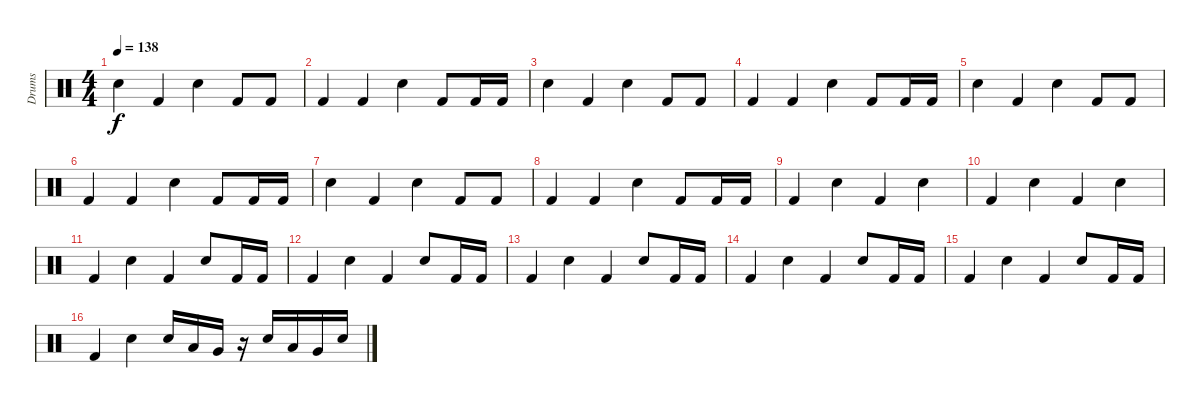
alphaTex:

\track ("Drums" "Drums") {instrument percussion}
\staff {score}
\articulation defaults
\ts (4 4)
\tempo 138
\clef neutral
\ks c "Snare (hit) 2".4{dy f} "Kick (hit) 2".4 "Electric Snare (hit)".4 "Kick (hit) 2".8 "Kick (hit) 2".8
|
"Kick (hit) 2".4 "Kick (hit) 2".4 "Electric Snare (hit)".4 "Kick (hit) 2".8 "Kick (hit) 2".16 "Kick (hit) 2".16 |
"Snare (hit) 2".4 "Kick (hit) 2".4 "Electric Snare (hit)".4 "Kick (hit) 2".8 "Kick (hit) 2".8 |
"Kick (hit) 2".4 "Kick (hit) 2".4 "Electric Snare (hit)".4 "Kick (hit) 2".8 "Kick (hit) 2".16 "Kick (hit) 2".16 |
"Snare (hit) 2".4 "Kick (hit) 2".4 "Electric Snare (hit)".4 "Kick (hit) 2".8 "Kick (hit) 2".8 |
"Kick (hit) 2".4 "Kick (hit) 2".4 "Electric Snare (hit)".4 "Kick (hit) 2".8 "Kick (hit) 2".16 "Kick (hit) 2".16 |
"Snare (hit) 2".4 "Kick (hit) 2".4 "Electric Snare (hit)".4 "Kick (hit) 2".8 "Kick (hit) 2".8 |
"Kick (hit) 2".4 "Kick (hit) 2".4 "Electric Snare (hit)".4 "Kick (hit) 2".8 "Kick (hit) 2".16 "Kick (hit) 2".16 |
"Kick (hit) 2".4 "Electric Snare (hit)".4 "Kick (hit) 2".4 "Electric Snare (hit)".4 |
"Kick (hit) 2".4 "Electric Snare (hit)".4 "Kick (hit) 2".4 "Electric Snare (hit)".4 |
"Kick (hit) 2".4 "Electric Snare (hit)".4 "Kick (hit) 2".4 "Electric Snare (hit)".8 "Kick (hit) 2".16 "Kick (hit) 2".16 |
"Kick (hit) 2".4 "Electric Snare (hit)".4 "Kick (hit) 2".4 "Electric Snare (hit)".8 "Kick (hit) 2".16 "Kick (hit) 2".16 |
"Kick (hit) 2".4 "Electric Snare (hit)".4 "Kick (hit) 2".4 "Electric Snare (hit)".8 "Kick (hit) 2".16 "Kick (hit) 2".16 |
"Kick (hit) 2".4 "Electric Snare (hit)".4 "Kick (hit) 2".4 "Electric Snare (hit)".8 "Kick (hit) 2".16 "Kick (hit) 2".16 |
"Kick (hit) 2".4 "Electric Snare (hit)".4 "Kick (hit) 2".4 "Electric Snare (hit)".8 "Kick (hit) 2".16 "Kick (hit) 2".16 |
"Kick (hit) 2".4 "Electric Snare (hit)".4 "Electric Snare (hit)".16 "Low Tom (hit)".16 "Very Low Tom (hit)".16 r.16 "Electric Snare (hit)".16 "Low Tom (hit)".16 "Very Low Tom (hit)".16 "Electric Snare (hit)".16
